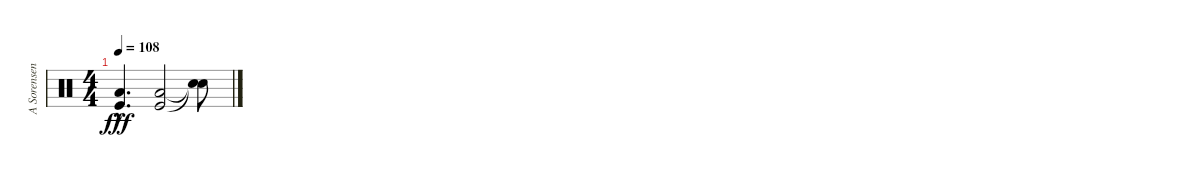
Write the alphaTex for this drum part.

\track ("A Sorensen" "A Sorensen") {instrument percussion}
\staff {score}
\articulation defaults
\ts (4 4)
\tempo 108
\clef neutral
\ks c
("Low Floor Tom (hit)"{hac} "Kick (hit)"{hac}).4{d dy fff} ("Low Floor Tom (hit)" "Kick (hit)").2 ("Snare (hit)"{t} "Snare (hit)"{t}).8
